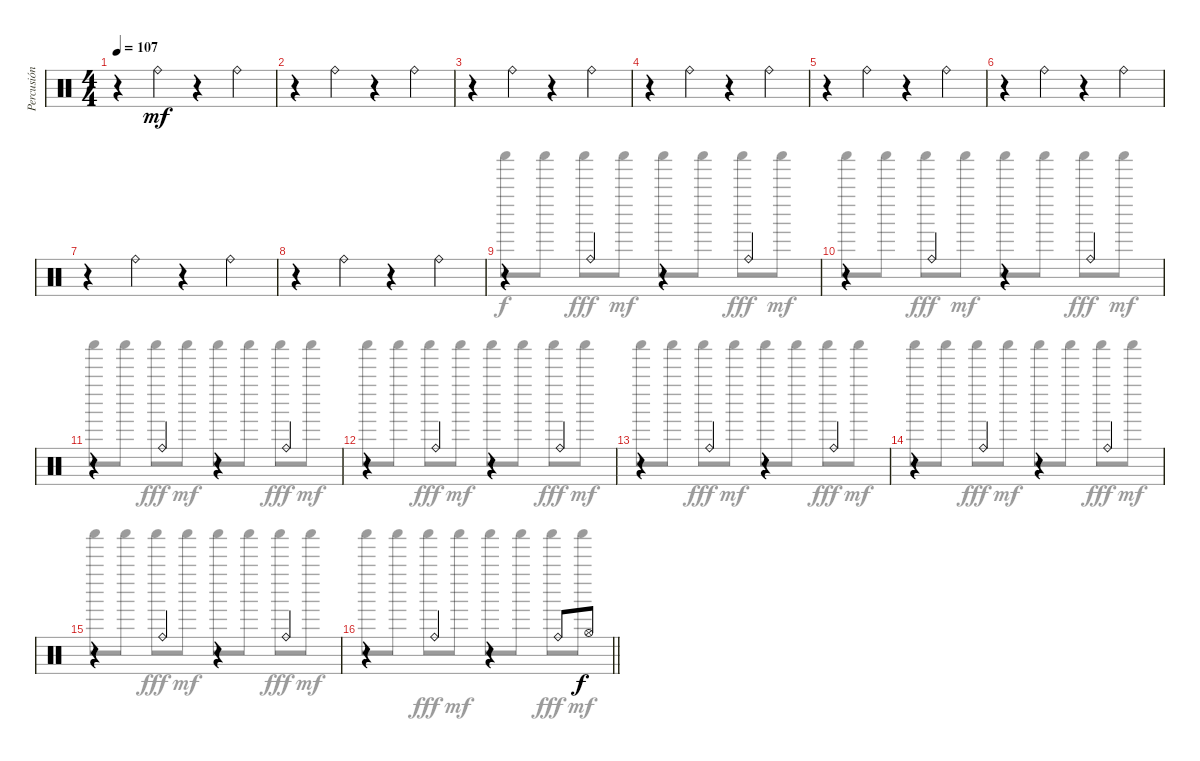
\track ("Percusión" "Percusión") {instrument percussion}
\staff {score}
\articulation defaults
\voice
\ts (4 4)
\tempo 107
\clef neutral
\ks c
r.4{dy mf} "Ride (bell)".4 r.4 "Ride (bell)".4 |
r.4 "Ride (bell)".4 r.4 "Ride (bell)".4 |
r.4 "Ride (bell)".4 r.4 "Ride (bell)".4 |
r.4 "Ride (bell)".4 r.4 "Ride (bell)".4 |
r.4 "Ride (bell)".4 r.4 "Ride (bell)".4 |
r.4 "Ride (bell)".4 r.4 "Ride (bell)".4 |
r.4 "Ride (bell)".4 r.4 "Ride (bell)".4 |
r.4 "Ride (bell)".4 r.4 "Ride (bell)".4 |
r.4 "Ride (bell)".4 r.4 "Ride (bell)".4 |
r.4 "Ride (bell)".4 r.4 "Ride (bell)".4 |
r.4 "Ride (bell)".4 r.4 "Ride (bell)".4 |
r.4 "Ride (bell)".4 r.4 "Ride (bell)".4 |
r.4 "Ride (bell)".4 r.4 "Ride (bell)".4 |
r.4 "Ride (bell)".4 r.4 "Ride (bell)".4 |
r.4 "Ride (bell)".4 r.4 "Ride (bell)".4 |
\barLineRight lightlight
r.4 "Ride (bell)".4 r.4 "Ride (bell)".8 "Hi-Hat (open)".8{dy f}
\voice
\clef neutral
\ottava regular
\simile none
\ks c
|
|
|
|
|
|
|
|
"Shaker (hit)".8 "Shaker (hit)".8 "Shaker (hit)".8{dy fff} "Shaker (hit)".8{dy mf} "Shaker (hit)".8 "Shaker (hit)".8 "Shaker (hit)".8{dy fff} "Shaker (hit)".8{dy mf} |
"Shaker (hit)".8 "Shaker (hit)".8 "Shaker (hit)".8{dy fff} "Shaker (hit)".8{dy mf} "Shaker (hit)".8 "Shaker (hit)".8 "Shaker (hit)".8{dy fff} "Shaker (hit)".8{dy mf} |
"Shaker (hit)".8 "Shaker (hit)".8 "Shaker (hit)".8{dy fff} "Shaker (hit)".8{dy mf} "Shaker (hit)".8 "Shaker (hit)".8 "Shaker (hit)".8{dy fff} "Shaker (hit)".8{dy mf} |
"Shaker (hit)".8 "Shaker (hit)".8 "Shaker (hit)".8{dy fff} "Shaker (hit)".8{dy mf} "Shaker (hit)".8 "Shaker (hit)".8 "Shaker (hit)".8{dy fff} "Shaker (hit)".8{dy mf} |
"Shaker (hit)".8 "Shaker (hit)".8 "Shaker (hit)".8{dy fff} "Shaker (hit)".8{dy mf} "Shaker (hit)".8 "Shaker (hit)".8 "Shaker (hit)".8{dy fff} "Shaker (hit)".8{dy mf} |
"Shaker (hit)".8 "Shaker (hit)".8 "Shaker (hit)".8{dy fff} "Shaker (hit)".8{dy mf} "Shaker (hit)".8 "Shaker (hit)".8 "Shaker (hit)".8{dy fff} "Shaker (hit)".8{dy mf} |
"Shaker (hit)".8 "Shaker (hit)".8 "Shaker (hit)".8{dy fff} "Shaker (hit)".8{dy mf} "Shaker (hit)".8 "Shaker (hit)".8 "Shaker (hit)".8{dy fff} "Shaker (hit)".8{dy mf} |
\barLineRight lightlight "Shaker (hit)".8 "Shaker (hit)".8 "Shaker (hit)".8{dy fff} "Shaker (hit)".8{dy mf} "Shaker (hit)".8 "Shaker (hit)".8 "Shaker (hit)".8{dy fff} "Shaker (hit)".8{dy mf}
